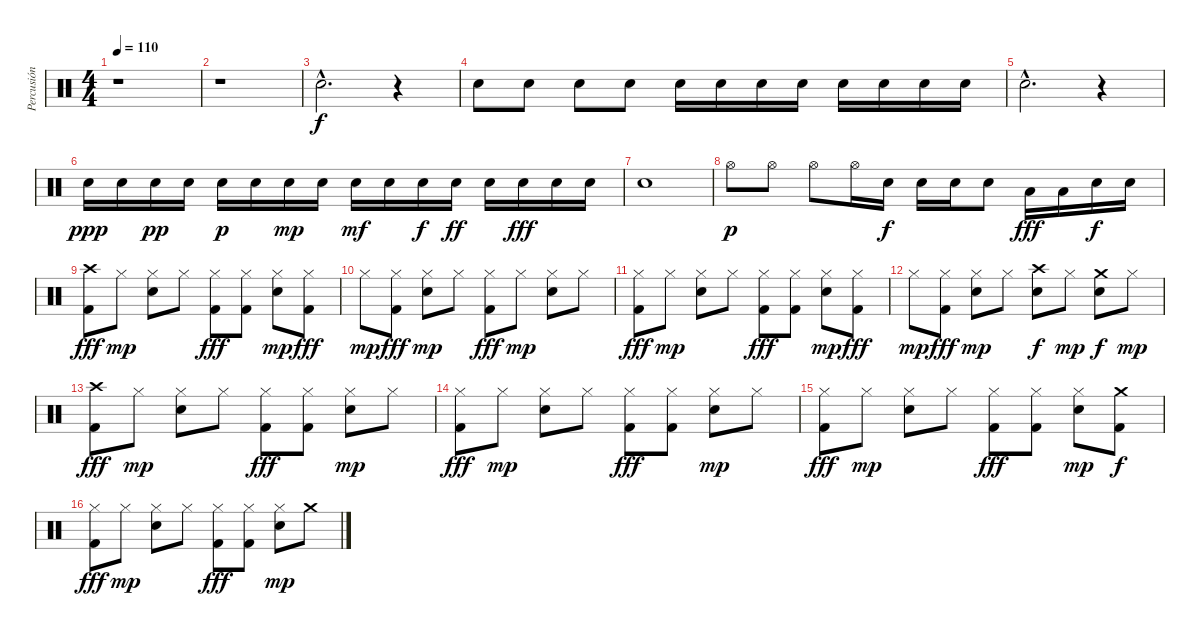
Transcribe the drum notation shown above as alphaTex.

\track ("Percusión" "Percusión") {instrument percussion}
\staff {score}
\articulation defaults
\ts (4 4)
\tempo 110
\clef neutral
\ks c
r.1{dy f} |
r.1 |
"Snare (hit) 2"{hac}.2{d} r.4{volume 0} |
"Snare (hit) 2".8{volume 13} "Snare (hit) 2".8 "Snare (hit) 2".8 "Snare (hit) 2".8 "Snare (hit) 2".16 "Snare (hit) 2".16 "Snare (hit) 2".16 "Snare (hit) 2".16 "Snare (hit) 2".16 "Snare (hit) 2".16 "Snare (hit) 2".16 "Snare (hit) 2".16 |
"Snare (hit) 2"{hac}.2{d} r.4{volume 0} |
"Snare (hit) 2".16{dy ppp volume 13} "Snare (hit) 2".16 "Snare (hit) 2".16{dy pp} "Snare (hit) 2".16 "Snare (hit) 2".16{dy p} "Snare (hit) 2".16 "Snare (hit) 2".16{dy mp} "Snare (hit) 2".16 "Snare (hit) 2".16{dy mf} "Snare (hit) 2".16 "Snare (hit) 2".16{dy f} "Snare (hit) 2".16{dy ff} "Snare (hit) 2".16 "Snare (hit) 2".16{dy fff} "Snare (hit) 2".16 "Snare (hit) 2".16 |
"Snare (hit) 2".1 |
"Hi-Hat (open)".8{dy p} "Hi-Hat (open)".8 "Hi-Hat (open)".8 "Hi-Hat (open)".16 "Snare (hit) 2".16{dy f} "Snare (hit) 2".16 "Snare (hit) 2".16 "Snare (hit) 2".8 "Low Tom (hit)".16{dy fff} "Low Tom (hit)".16 "Snare (hit) 2".16{dy f} "Snare (hit) 2".16 |
("Crash high (hit)" "Kick (hit) 2").8{dy fff} "Hi-Hat (closed)".8{dy mp} ("Hi-Hat (closed)" "Snare (hit) 2").8 "Hi-Hat (closed)".8 ("Hi-Hat (closed)" "Kick (hit) 2").8{dy fff} ("Hi-Hat (closed)" "Kick (hit) 2").8 ("Hi-Hat (closed)" "Snare (hit) 2").8{dy mp} ("Hi-Hat (closed)" "Kick (hit) 2").8{dy fff} |
"Hi-Hat (closed)".8{dy mp} ("Hi-Hat (closed)" "Kick (hit) 2").8{dy fff} ("Hi-Hat (closed)" "Snare (hit) 2").8{dy mp} "Hi-Hat (closed)".8 ("Hi-Hat (closed)" "Kick (hit) 2").8{dy fff} "Hi-Hat (closed)".8{dy mp} ("Hi-Hat (closed)" "Snare (hit) 2").8 "Hi-Hat (closed)".8 |
("Hi-Hat (closed)" "Kick (hit) 2").8{dy fff} "Hi-Hat (closed)".8{dy mp} ("Hi-Hat (closed)" "Snare (hit) 2").8 "Hi-Hat (closed)".8 ("Hi-Hat (closed)" "Kick (hit) 2").8{dy fff} ("Hi-Hat (closed)" "Kick (hit) 2").8 ("Hi-Hat (closed)" "Snare (hit) 2").8{dy mp} ("Hi-Hat (closed)" "Kick (hit) 2").8{dy fff} |
"Hi-Hat (closed)".8{dy mp} ("Hi-Hat (closed)" "Kick (hit) 2").8{dy fff} ("Hi-Hat (closed)" "Snare (hit) 2").8{dy mp} "Hi-Hat (closed)".8 ("Crash high (hit)" "Snare (hit) 2").8{dy f} "Hi-Hat (closed)".8{dy mp} ("Crash medium (hit)" "Snare (hit) 2").8{dy f} "Hi-Hat (closed)".8{dy mp} |
("Crash high (hit)" "Kick (hit) 2").8{dy fff} "Hi-Hat (closed)".8{dy mp} ("Hi-Hat (closed)" "Snare (hit) 2").8 "Hi-Hat (closed)".8 ("Hi-Hat (closed)" "Kick (hit) 2").8{dy fff} ("Hi-Hat (closed)" "Kick (hit) 2").8 ("Hi-Hat (closed)" "Snare (hit) 2").8{dy mp} "Hi-Hat (closed)".8 |
("Hi-Hat (closed)" "Kick (hit) 2").8{dy fff} "Hi-Hat (closed)".8{dy mp} ("Hi-Hat (closed)" "Snare (hit) 2").8 "Hi-Hat (closed)".8 ("Hi-Hat (closed)" "Kick (hit) 2").8{dy fff} ("Hi-Hat (closed)" "Kick (hit) 2").8 ("Hi-Hat (closed)" "Snare (hit) 2").8{dy mp} "Hi-Hat (closed)".8 |
("Hi-Hat (closed)" "Kick (hit) 2").8{dy fff} "Hi-Hat (closed)".8{dy mp} ("Hi-Hat (closed)" "Snare (hit) 2").8 "Hi-Hat (closed)".8 ("Hi-Hat (closed)" "Kick (hit) 2").8{dy fff} ("Hi-Hat (closed)" "Kick (hit) 2").8 ("Hi-Hat (closed)" "Snare (hit) 2").8{dy mp} ("Crash medium (hit)" "Kick (hit) 2").8{dy f} |
("Hi-Hat (closed)" "Kick (hit) 2").8{dy fff} "Hi-Hat (closed)".8{dy mp} ("Hi-Hat (closed)" "Snare (hit) 2").8 "Hi-Hat (closed)".8 ("Hi-Hat (closed)" "Kick (hit) 2").8{dy fff} ("Hi-Hat (closed)" "Kick (hit) 2").8 ("Hi-Hat (closed)" "Snare (hit) 2").8{dy mp} "Crash medium (hit)".8
